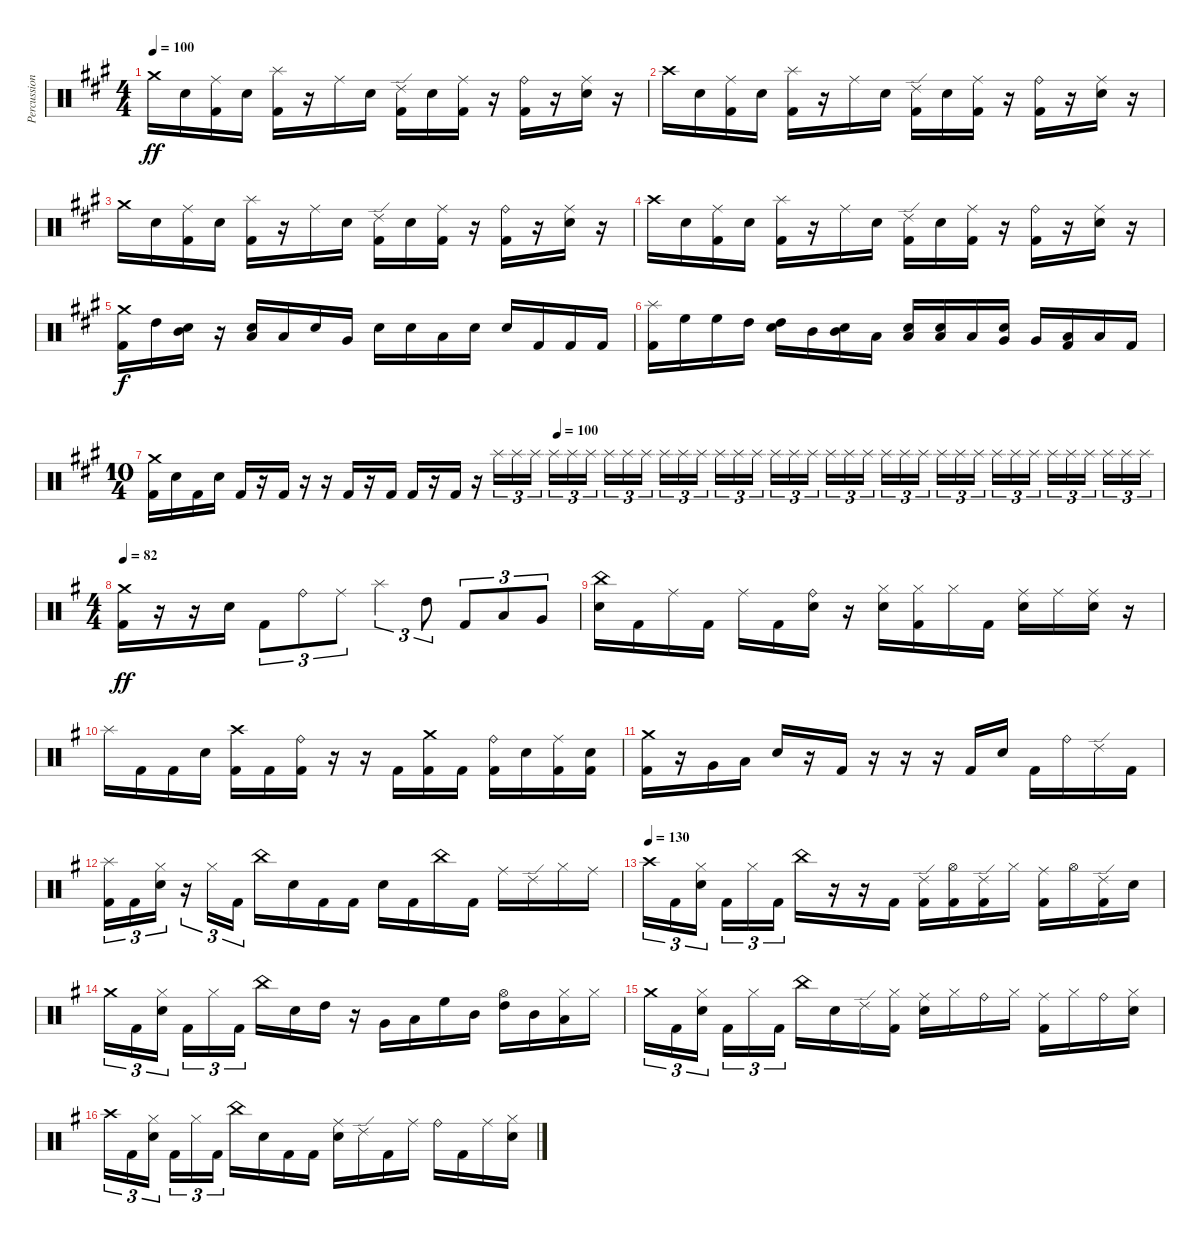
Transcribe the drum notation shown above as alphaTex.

\track ("Percussion" "Percussion") {instrument percussion}
\staff {score}
\articulation defaults
\ts (4 4)
\tempo 100
\clef neutral
\ks a "Crash medium (hit)".16{dy ff} "Electric Snare (hit)".16
("Ride (middle)" "Kick (hit) 2").16 "Electric Snare (hit)".16 ("Splash (hit)" "Kick (hit) 2").16 r.16 "Ride (middle)".16 "Electric Snare (hit)".16 ("Ride (edge) 2" "Kick (hit) 2").16 "Electric Snare (hit)".16 ("Ride (middle)" "Kick (hit) 2").16 r.16 ("Ride (bell)" "Kick (hit) 2").16 r.16 ("Ride (middle)" "Electric Snare (hit)").16 r.16 |
"Crash high (hit)".16 "Electric Snare (hit)".16 ("Ride (middle)" "Kick (hit) 2").16 "Electric Snare (hit)".16 ("Splash (hit)" "Kick (hit) 2").16 r.16 "Ride (middle)".16 "Electric Snare (hit)".16 ("Ride (edge) 2" "Kick (hit) 2").16 "Electric Snare (hit)".16 ("Ride (middle)" "Kick (hit) 2").16 r.16 ("Ride (bell)" "Kick (hit) 2").16 r.16 ("Ride (middle)" "Electric Snare (hit)").16 r.16 |
"Crash medium (hit)".16 "Electric Snare (hit)".16 ("Ride (middle)" "Kick (hit) 2").16 "Electric Snare (hit)".16 ("Splash (hit)" "Kick (hit) 2").16 r.16 "Ride (middle)".16 "Electric Snare (hit)".16 ("Ride (edge) 2" "Kick (hit) 2").16 "Electric Snare (hit)".16 ("Ride (middle)" "Kick (hit) 2").16 r.16 ("Ride (bell)" "Kick (hit) 2").16 r.16 ("Ride (middle)" "Electric Snare (hit)").16 r.16 |
"Crash high (hit)".16 "Electric Snare (hit)".16 ("Ride (middle)" "Kick (hit) 2").16 "Electric Snare (hit)".16 ("Splash (hit)" "Kick (hit) 2").16 r.16 "Ride (middle)".16 "Electric Snare (hit)".16 ("Ride (edge) 2" "Kick (hit) 2").16 "Electric Snare (hit)".16 ("Ride (middle)" "Kick (hit) 2").16 r.16 ("Ride (bell)" "Kick (hit) 2").16 r.16 ("Ride (middle)" "Electric Snare (hit)").16 r.16 |
("Crash medium (hit)" "Kick (hit) 2").16{dy f} "High Tom (hit)".16 ("Mid Tom (hit)" "Electric Snare (hit)").16 r.16 ("Low Tom (hit)" "Electric Snare (hit)").16 "Low Tom (hit)".16 "Electric Snare (hit)".16 "Very Low Tom (hit)".16 "Electric Snare (hit)".16 "Electric Snare (hit)".16 "Low Floor Tom (hit)".16 "Electric Snare (hit)".16 "Electric Snare (hit)".16 "Kick (hit) 2".16 "Kick (hit) 2".16 "Kick (hit) 2".16 |
("Splash (hit)" "Kick (hit) 2").16 "High Floor Tom (hit)".16 "High Floor Tom (hit)".16 "High Tom (hit)".16 ("High Tom (hit)" "Electric Snare (hit)").16 "Mid Tom (hit)".16 ("Mid Tom (hit)" "Electric Snare (hit)").16 "Low Tom (hit)".16 ("Low Tom (hit)" "Electric Snare (hit)").16 ("Low Tom (hit)" "Electric Snare (hit)").16 "Low Tom (hit)".16 ("Very Low Tom (hit)" "Electric Snare (hit)").16 "Very Low Tom (hit)".16 ("Low Floor Tom (hit)" "Kick (hit) 2").16 "Low Floor Tom (hit)".16 "Kick (hit) 2".16 |
\ts (10 4)
\tempo (100 0.4)
("Crash medium (hit)" "Kick (hit) 2").16 "Electric Snare (hit)".16 "Kick (hit) 2".16 "Electric Snare (hit)".16 "Kick (hit) 2".16 r.16 "Kick (hit) 2".16 r.16 r.16 "Kick (hit) 2".16 r.16 "Kick (hit) 2".16 "Kick (hit) 2".16 r.16 "Kick (hit) 2".16 r.16 "Splash (hit)".16{tu (3 2)} "Splash (hit)".16{tu (3 2)} "Splash (hit)".16{tu (3 2) beam splitsecondary} "Splash (hit)".16{tu (3 2)} "Splash (hit)".16{tu (3 2)} "Splash (hit)".16{tu (3 2)} "Splash (hit)".16{tu (3 2)} "Splash (hit)".16{tu (3 2)} "Splash (hit)".16{tu (3 2) beam splitsecondary} "Splash (hit)".16{tu (3 2)} "Splash (hit)".16{tu (3 2)} "Splash (hit)".16{tu (3 2)} "Splash (hit)".16{tu (3 2)} "Splash (hit)".16{tu (3 2)} "Splash (hit)".16{tu (3 2) beam splitsecondary} "Splash (hit)".16{tu (3 2)} "Splash (hit)".16{tu (3 2)} "Splash (hit)".16{tu (3 2)} "Splash (hit)".16{tu (3 2)} "Splash (hit)".16{tu (3 2)} "Splash (hit)".16{tu (3 2) beam splitsecondary} "Splash (hit)".16{tu (3 2)} "Splash (hit)".16{tu (3 2)} "Splash (hit)".16{tu (3 2)} "Splash (hit)".16{tu (3 2)} "Splash (hit)".16{tu (3 2)} "Splash (hit)".16{tu (3 2) beam splitsecondary} "Splash (hit)".16{tu (3 2)} "Splash (hit)".16{tu (3 2)} "Splash (hit)".16{tu (3 2)} "Splash (hit)".16{tu (3 2)} "Splash (hit)".16{tu (3 2)} "Splash (hit)".16{tu (3 2) beam splitsecondary} "Splash (hit)".16{tu (3 2)} "Splash (hit)".16{tu (3 2)} "Splash (hit)".16{tu (3 2)} |
\ts (4 4)
\tempo 82
\ks g
("Crash medium (hit)" "Kick (hit) 2").16{dy ff} r.16 r.16 "Electric Snare (hit)".16 "Kick (hit) 2".8{tu (3 2)} "Ride (bell)".8{tu (3 2)} "Ride (middle)".8{tu (3 2)} "Splash (hit)".4{tu (3 2)} "High Tom (hit)".8{tu (3 2)} "Kick (hit) 2".8{tu (3 2)} "Low Tom (hit)".8{tu (3 2)} "Very Low Tom (hit)".8{tu (3 2)} |
("China (hit)" "Electric Snare (hit)").16 "Kick (hit) 2".16 "Ride (middle)".16 "Kick (hit) 2".16 "Ride (middle)".16 "Kick (hit) 2".16 ("Ride (bell)" "Electric Snare (hit)").16 r.16 ("Hi-Hat (closed)" "Electric Snare (hit)").16 ("Hi-Hat (closed)" "Kick (hit) 2").16 "Hi-Hat (closed)".16 "Kick (hit) 2".16 ("Ride (middle)" "Electric Snare (hit)").16 "Ride (middle)".16 ("Ride (middle)" "Electric Snare (hit)").16 r.16 |
"Splash (hit)".16 "Kick (hit) 2".16 "Kick (hit) 2".16 "Electric Snare (hit)".16 ("Crash high (hit)" "Kick (hit) 2").16 "Kick (hit) 2".16 ("Ride (bell)" "Kick (hit) 2").16 r.16 r.16 "Kick (hit) 2".16 ("Crash medium (hit)" "Kick (hit) 2").16 "Kick (hit) 2".16 ("Ride (bell)" "Kick (hit) 2").16 "Electric Snare (hit)".16 ("Ride (middle)" "Kick (hit) 2").16 ("Electric Snare (hit)" "Kick (hit) 2").16 |
("Crash medium (hit)" "Kick (hit) 2").16 r.16 "Very Low Tom (hit)".16 "Low Tom (hit)".16 "Electric Snare (hit)".16 r.16 "Kick (hit) 2".16 r.16 r.16 r.16 "Kick (hit) 2".16 "Electric Snare (hit)".16 "Kick (hit) 2".16 "Ride (bell)".16 "Ride (edge) 2".16 "Kick (hit) 2".16 |
("Splash (hit)" "Kick (hit) 2").16{tu (3 2)} "Kick (hit) 2".16{tu (3 2)} ("Hi-Hat (closed)" "Electric Snare (hit)").16{tu (3 2)} r.16{tu (3 2)} "Hi-Hat (closed)".16{tu (3 2)} "Kick (hit) 2".16{tu (3 2)} "China (hit)".16 "Electric Snare (hit)".16 "Kick (hit) 2".16 "Kick (hit) 2".16 "Electric Snare (hit)".16 "Kick (hit) 2".16 "China (hit)".16 "Kick (hit) 2".16 "Ride (middle)".16 "Ride (edge) 2".16 "Hi-Hat (closed)".16 "Ride (middle)".16 |
\tempo (130)
"Crash high (hit)".16{tu (3 2)} "Kick (hit) 2".16{tu (3 2)} ("Hi-Hat (closed)" "Electric Snare (hit)").16{tu (3 2) beam splitsecondary} "Kick (hit) 2".16{tu (3 2)} "Hi-Hat (closed)".16{tu (3 2)} "Kick (hit) 2".16{tu (3 2)} "China (hit)".16 r.16 r.16 "Kick (hit) 2".16 ("Ride (edge) 2" "Kick (hit) 2").16 ("Hi-Hat (open)" "Kick (hit) 2").16 ("Ride (edge) 2" "Kick (hit) 2").16 "Hi-Hat (closed)".16 ("Ride (middle)" "Kick (hit) 2").16 "Hi-Hat (open)".16 ("Ride (edge) 2" "Kick (hit) 2").16 "Electric Snare (hit)".16 |
"Crash medium (hit)".16{tu (3 2)} "Kick (hit) 2".16{tu (3 2)} ("Hi-Hat (closed)" "Electric Snare (hit)").16{tu (3 2) beam splitsecondary} "Kick (hit) 2".16{tu (3 2)} "Hi-Hat (closed)".16{tu (3 2)} "Kick (hit) 2".16{tu (3 2)} "China (hit)".16 "Electric Snare (hit)".16 "High Tom (hit)".16 r.16 "Very Low Tom (hit)".16 "Low Tom (hit)".16 "High Floor Tom (hit)".16 "Mid Tom (hit)".16 ("Hi-Hat (open)" "High Tom (hit)").16 "Mid Tom (hit)".16 ("Hi-Hat (closed)" "Low Tom (hit)").16 "Hi-Hat (closed)".16 |
"Crash medium (hit)".16{tu (3 2)} "Kick (hit) 2".16{tu (3 2)} ("Hi-Hat (closed)" "Electric Snare (hit)").16{tu (3 2) beam splitsecondary} "Kick (hit) 2".16{tu (3 2)} "Hi-Hat (closed)".16{tu (3 2)} "Kick (hit) 2".16{tu (3 2)} "China (hit)".16 "Electric Snare (hit)".16 "Ride (edge) 2".16 ("Hi-Hat (closed)" "Kick (hit) 2").16 ("Ride (middle)" "Electric Snare (hit)").16 "Hi-Hat (closed)".16 "Ride (bell)".16 "Hi-Hat (closed)".16 ("Ride (middle)" "Kick (hit) 2").16 "Hi-Hat (closed)".16 "Ride (bell)".16 ("Hi-Hat (closed)" "Electric Snare (hit)").16 |
"Crash high (hit)".16{tu (3 2)} "Kick (hit) 2".16{tu (3 2)} ("Hi-Hat (closed)" "Electric Snare (hit)").16{tu (3 2) beam splitsecondary} "Kick (hit) 2".16{tu (3 2)} "Hi-Hat (closed)".16{tu (3 2)} "Kick (hit) 2".16{tu (3 2)} "China (hit)".16 "Electric Snare (hit)".16 "Kick (hit) 2".16 "Kick (hit) 2".16 ("Ride (middle)" "Electric Snare (hit)").16 "Ride (edge) 2".16 "Kick (hit) 2".16 "Ride (middle)".16 "Ride (bell)".16 "Kick (hit) 2".16 "Ride (middle)".16 ("Hi-Hat (closed)" "Electric Snare (hit)").16
